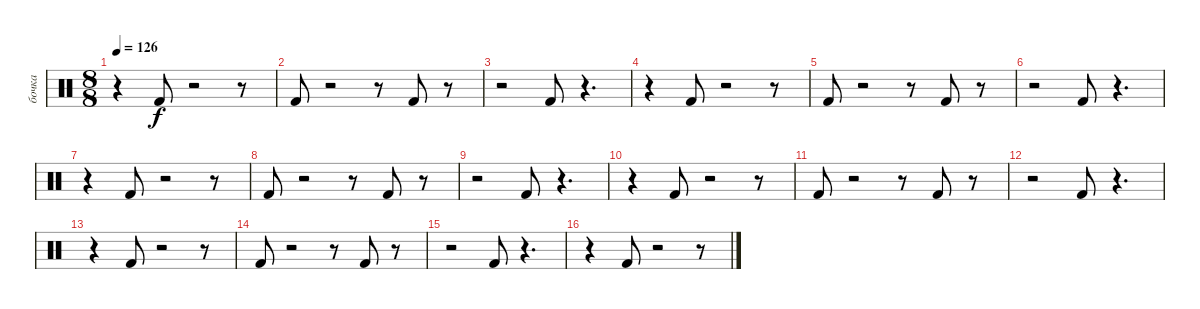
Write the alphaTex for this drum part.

\track ("бочка" "бочка") {instrument percussion}
\staff {score}
\articulation defaults
\ts (8 8)
\tempo 126
\clef neutral
\ks c
r.4{dy f} "Kick (hit) 2".8 r.2 r.8 |
"Kick (hit) 2".8 r.2 r.8 "Kick (hit) 2".8 r.8 |
r.2 "Kick (hit) 2".8 r.4{d} |
r.4 "Kick (hit) 2".8 r.2 r.8 |
"Kick (hit) 2".8 r.2 r.8 "Kick (hit) 2".8 r.8 |
r.2 "Kick (hit) 2".8 r.4{d} |
r.4 "Kick (hit) 2".8 r.2 r.8 |
"Kick (hit) 2".8 r.2 r.8 "Kick (hit) 2".8 r.8 |
r.2 "Kick (hit) 2".8 r.4{d} |
r.4 "Kick (hit) 2".8 r.2 r.8 |
"Kick (hit) 2".8 r.2 r.8 "Kick (hit) 2".8 r.8 |
r.2 "Kick (hit) 2".8 r.4{d} |
r.4 "Kick (hit) 2".8 r.2 r.8 |
"Kick (hit) 2".8 r.2 r.8 "Kick (hit) 2".8 r.8 |
r.2 "Kick (hit) 2".8 r.4{d} |
r.4 "Kick (hit) 2".8 r.2 r.8
